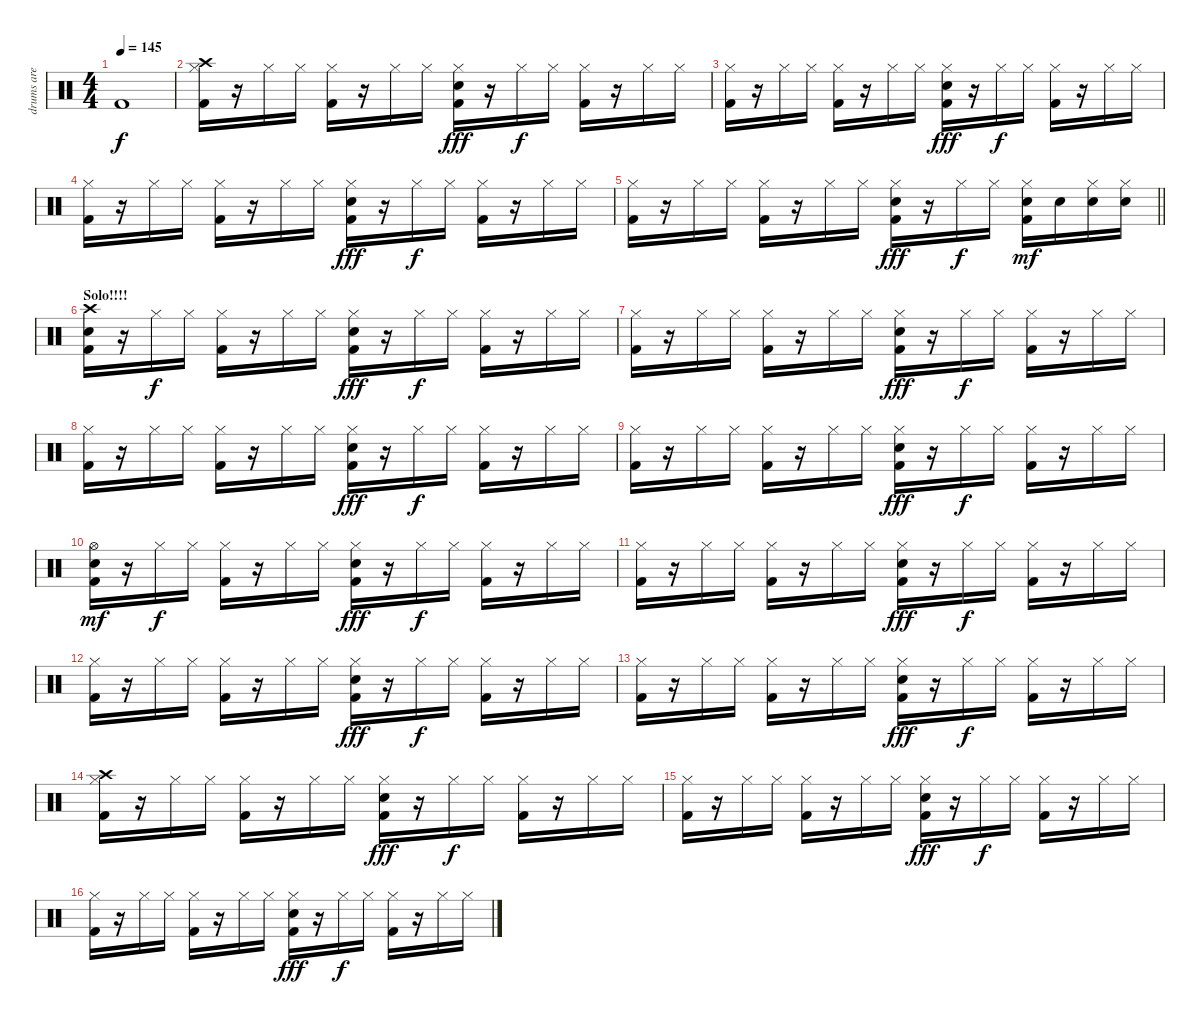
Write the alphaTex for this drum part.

\track ("drums are cool   >.<" "drums are ") {instrument percussion}
\staff {score}
\articulation defaults
\ts (4 4)
\tempo 145
\clef neutral
\ks c "Kick (hit) 2".1{dy f}
|
("Crash high (hit)" "Hi-Hat (closed)" "Kick (hit) 2").16 r.16 "Hi-Hat (closed)".16 "Hi-Hat (closed)".16 ("Hi-Hat (closed)" "Kick (hit) 2").16 r.16 "Hi-Hat (closed)".16 "Hi-Hat (closed)".16 ("Hi-Hat (closed)" "Snare (hit) 2" "Kick (hit) 2").16{dy fff} r.16 "Hi-Hat (closed)".16{dy f} "Hi-Hat (closed)".16 ("Hi-Hat (closed)" "Kick (hit) 2").16 r.16 "Hi-Hat (closed)".16 "Hi-Hat (closed)".16 |
("Hi-Hat (closed)" "Kick (hit) 2").16 r.16 "Hi-Hat (closed)".16 "Hi-Hat (closed)".16 ("Hi-Hat (closed)" "Kick (hit) 2").16 r.16 "Hi-Hat (closed)".16 "Hi-Hat (closed)".16 ("Hi-Hat (closed)" "Snare (hit) 2" "Kick (hit) 2").16{dy fff} r.16 "Hi-Hat (closed)".16{dy f} "Hi-Hat (closed)".16 ("Hi-Hat (closed)" "Kick (hit) 2").16 r.16 "Hi-Hat (closed)".16 "Hi-Hat (closed)".16 |
("Hi-Hat (closed)" "Kick (hit) 2").16 r.16 "Hi-Hat (closed)".16 "Hi-Hat (closed)".16 ("Hi-Hat (closed)" "Kick (hit) 2").16 r.16 "Hi-Hat (closed)".16 "Hi-Hat (closed)".16 ("Hi-Hat (closed)" "Snare (hit) 2" "Kick (hit) 2").16{dy fff} r.16 "Hi-Hat (closed)".16{dy f} "Hi-Hat (closed)".16 ("Hi-Hat (closed)" "Kick (hit) 2").16 r.16 "Hi-Hat (closed)".16 "Hi-Hat (closed)".16 |
\barLineRight lightlight
("Hi-Hat (closed)" "Kick (hit) 2").16 r.16 "Hi-Hat (closed)".16 "Hi-Hat (closed)".16 ("Hi-Hat (closed)" "Kick (hit) 2").16 r.16 "Hi-Hat (closed)".16 "Hi-Hat (closed)".16 ("Hi-Hat (closed)" "Snare (hit) 2" "Kick (hit) 2").16{dy fff} r.16 "Hi-Hat (closed)".16{dy f} "Hi-Hat (closed)".16 ("Hi-Hat (closed)" "Snare (hit) 2" "Kick (hit) 2").16{dy mf} "Snare (hit) 2".16 ("Hi-Hat (closed)" "Snare (hit) 2").16 ("Hi-Hat (closed)" "Snare (hit) 2").16 |
\section ("" "Solo!!!!")
("Crash high (hit)" "Snare (hit) 2" "Kick (hit) 2").16 r.16 "Hi-Hat (closed)".16{dy f} "Hi-Hat (closed)".16 ("Hi-Hat (closed)" "Kick (hit) 2").16 r.16 "Hi-Hat (closed)".16 "Hi-Hat (closed)".16 ("Hi-Hat (closed)" "Snare (hit) 2" "Kick (hit) 2").16{dy fff} r.16 "Hi-Hat (closed)".16{dy f} "Hi-Hat (closed)".16 ("Hi-Hat (closed)" "Kick (hit) 2").16 r.16 "Hi-Hat (closed)".16 "Hi-Hat (closed)".16 |
("Hi-Hat (closed)" "Kick (hit) 2").16 r.16 "Hi-Hat (closed)".16 "Hi-Hat (closed)".16 ("Hi-Hat (closed)" "Kick (hit) 2").16 r.16 "Hi-Hat (closed)".16 "Hi-Hat (closed)".16 ("Hi-Hat (closed)" "Snare (hit) 2" "Kick (hit) 2").16{dy fff} r.16 "Hi-Hat (closed)".16{dy f} "Hi-Hat (closed)".16 ("Hi-Hat (closed)" "Kick (hit) 2").16 r.16 "Hi-Hat (closed)".16 "Hi-Hat (closed)".16 |
("Hi-Hat (closed)" "Kick (hit) 2").16 r.16 "Hi-Hat (closed)".16 "Hi-Hat (closed)".16 ("Hi-Hat (closed)" "Kick (hit) 2").16 r.16 "Hi-Hat (closed)".16 "Hi-Hat (closed)".16 ("Hi-Hat (closed)" "Snare (hit) 2" "Kick (hit) 2").16{dy fff} r.16 "Hi-Hat (closed)".16{dy f} "Hi-Hat (closed)".16 ("Hi-Hat (closed)" "Kick (hit) 2").16 r.16 "Hi-Hat (closed)".16 "Hi-Hat (closed)".16 |
("Hi-Hat (closed)" "Kick (hit) 2").16 r.16 "Hi-Hat (closed)".16 "Hi-Hat (closed)".16 ("Hi-Hat (closed)" "Kick (hit) 2").16 r.16 "Hi-Hat (closed)".16 "Hi-Hat (closed)".16 ("Hi-Hat (closed)" "Snare (hit) 2" "Kick (hit) 2").16{dy fff} r.16 "Hi-Hat (closed)".16{dy f} "Hi-Hat (closed)".16 ("Hi-Hat (closed)" "Kick (hit) 2").16 r.16 "Hi-Hat (closed)".16 "Hi-Hat (closed)".16 |
("Hi-Hat (open)" "Snare (hit) 2" "Kick (hit) 2").16{dy mf} r.16 "Hi-Hat (closed)".16{dy f} "Hi-Hat (closed)".16 ("Hi-Hat (closed)" "Kick (hit) 2").16 r.16 "Hi-Hat (closed)".16 "Hi-Hat (closed)".16 ("Hi-Hat (closed)" "Snare (hit) 2" "Kick (hit) 2").16{dy fff} r.16 "Hi-Hat (closed)".16{dy f} "Hi-Hat (closed)".16 ("Hi-Hat (closed)" "Kick (hit) 2").16 r.16 "Hi-Hat (closed)".16 "Hi-Hat (closed)".16 |
("Hi-Hat (closed)" "Kick (hit) 2").16 r.16 "Hi-Hat (closed)".16 "Hi-Hat (closed)".16 ("Hi-Hat (closed)" "Kick (hit) 2").16 r.16 "Hi-Hat (closed)".16 "Hi-Hat (closed)".16 ("Hi-Hat (closed)" "Snare (hit) 2" "Kick (hit) 2").16{dy fff} r.16 "Hi-Hat (closed)".16{dy f} "Hi-Hat (closed)".16 ("Hi-Hat (closed)" "Kick (hit) 2").16 r.16 "Hi-Hat (closed)".16 "Hi-Hat (closed)".16 |
("Hi-Hat (closed)" "Kick (hit) 2").16 r.16 "Hi-Hat (closed)".16 "Hi-Hat (closed)".16 ("Hi-Hat (closed)" "Kick (hit) 2").16 r.16 "Hi-Hat (closed)".16 "Hi-Hat (closed)".16 ("Hi-Hat (closed)" "Snare (hit) 2" "Kick (hit) 2").16{dy fff} r.16 "Hi-Hat (closed)".16{dy f} "Hi-Hat (closed)".16 ("Hi-Hat (closed)" "Kick (hit) 2").16 r.16 "Hi-Hat (closed)".16 "Hi-Hat (closed)".16 |
("Hi-Hat (closed)" "Kick (hit) 2").16 r.16 "Hi-Hat (closed)".16 "Hi-Hat (closed)".16 ("Hi-Hat (closed)" "Kick (hit) 2").16 r.16 "Hi-Hat (closed)".16 "Hi-Hat (closed)".16 ("Hi-Hat (closed)" "Snare (hit) 2" "Kick (hit) 2").16{dy fff} r.16 "Hi-Hat (closed)".16{dy f} "Hi-Hat (closed)".16 ("Hi-Hat (closed)" "Kick (hit) 2").16 r.16 "Hi-Hat (closed)".16 "Hi-Hat (closed)".16 |
("Crash high (hit)" "Hi-Hat (closed)" "Kick (hit) 2").16 r.16 "Hi-Hat (closed)".16 "Hi-Hat (closed)".16 ("Hi-Hat (closed)" "Kick (hit) 2").16 r.16 "Hi-Hat (closed)".16 "Hi-Hat (closed)".16 ("Hi-Hat (closed)" "Snare (hit) 2" "Kick (hit) 2").16{dy fff} r.16 "Hi-Hat (closed)".16{dy f} "Hi-Hat (closed)".16 ("Hi-Hat (closed)" "Kick (hit) 2").16 r.16 "Hi-Hat (closed)".16 "Hi-Hat (closed)".16 |
("Hi-Hat (closed)" "Kick (hit) 2").16 r.16 "Hi-Hat (closed)".16 "Hi-Hat (closed)".16 ("Hi-Hat (closed)" "Kick (hit) 2").16 r.16 "Hi-Hat (closed)".16 "Hi-Hat (closed)".16 ("Hi-Hat (closed)" "Snare (hit) 2" "Kick (hit) 2").16{dy fff} r.16 "Hi-Hat (closed)".16{dy f} "Hi-Hat (closed)".16 ("Hi-Hat (closed)" "Kick (hit) 2").16 r.16 "Hi-Hat (closed)".16 "Hi-Hat (closed)".16 |
("Hi-Hat (closed)" "Kick (hit) 2").16 r.16 "Hi-Hat (closed)".16 "Hi-Hat (closed)".16 ("Hi-Hat (closed)" "Kick (hit) 2").16 r.16 "Hi-Hat (closed)".16 "Hi-Hat (closed)".16 ("Hi-Hat (closed)" "Snare (hit) 2" "Kick (hit) 2").16{dy fff} r.16 "Hi-Hat (closed)".16{dy f} "Hi-Hat (closed)".16 ("Hi-Hat (closed)" "Kick (hit) 2").16 r.16 "Hi-Hat (closed)".16 "Hi-Hat (closed)".16
